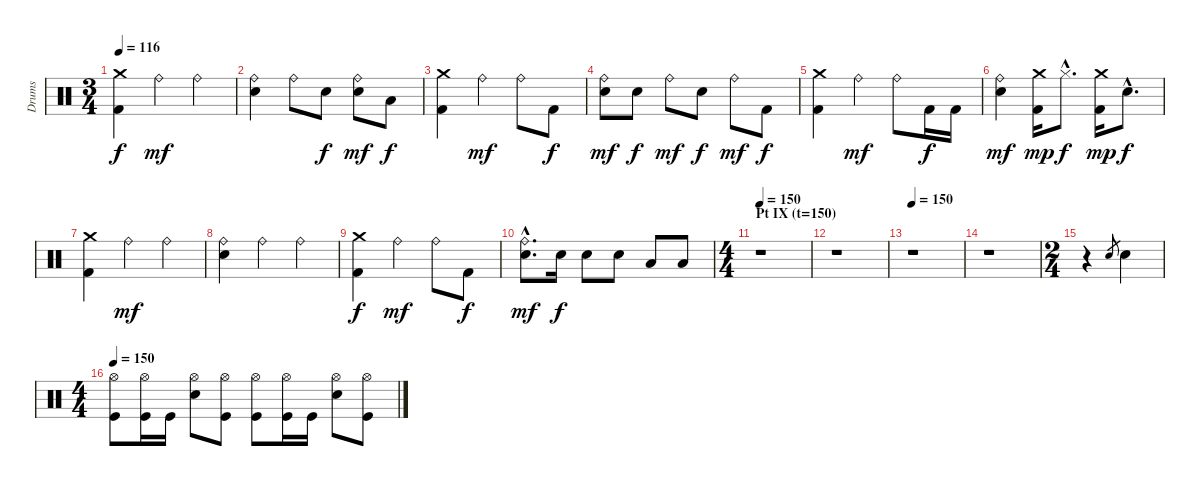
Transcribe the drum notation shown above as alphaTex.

\track ("Drums" "Drums") {instrument percussion}
\staff {score}
\articulation defaults
\ts (3 4)
\tempo 116
\clef neutral
\ks c
("Kick (hit) 2" "Crash medium (hit)").4{dy f} "Ride (bell)".4{dy mf} "Ride (bell)".4 |
("Electric Snare (hit)" "Ride (bell)").4 "Ride (bell)".8 "Electric Snare (hit)".8{dy f} ("Electric Snare (hit)" "Ride (bell)").8{dy mf} "Low Tom (hit)".8{dy f} |
("Kick (hit) 2" "Crash medium (hit)").4 "Ride (bell)".4{dy mf} "Ride (bell)".8 "Kick (hit) 2".8{dy f} |
("Electric Snare (hit)" "Ride (bell)").8{dy mf} "Electric Snare (hit)".8{dy f} "Ride (bell)".8{dy mf} "Electric Snare (hit)".8{dy f} "Ride (bell)".8{dy mf} "Kick (hit) 2".8{dy f} |
("Kick (hit) 2" "Crash medium (hit)").4 "Ride (bell)".4{dy mf} "Ride (bell)".8 "Kick (hit) 2".16{dy f} "Kick (hit) 2".16 |
("Electric Snare (hit)" "Ride (bell)").4{dy mf} ("Kick (hit) 2" "Crash medium (hit)").16{dy mp} "Hi-Hat (closed)"{hac x}.8{d dy f} ("Kick (hit) 2" "Crash medium (hit)").16{dy mp} "Snare (hit)"{hac x}.8{d dy f} |
("Kick (hit) 2" "Crash medium (hit)").4 "Ride (bell)".4{dy mf} "Ride (bell)".4 |
("Electric Snare (hit)" "Ride (bell)").4 "Ride (bell)".4 "Ride (bell)".4 |
("Kick (hit) 2" "Crash medium (hit)").4{dy f} "Ride (bell)".4{dy mf} "Ride (bell)".8 "Kick (hit) 2".8{dy f} |
("Electric Snare (hit)"{hac} "Ride (bell)"{hac}).8{d dy mf} "Electric Snare (hit)".16{dy f} "Electric Snare (hit)".8 "Electric Snare (hit)".8 "Low Tom (hit)".8 "Low Tom (hit)".8 |
\ts (4 4)
\section ("" "Pt IX (t=150)")
\tempo 150
r.1 |
r.1 |
\tempo 150
r.1 |
r.1 |
\ts (2 4)
r.4 "Electric Snare (hit)".8{gr} "Electric Snare (hit)".4 |
\ts (4 4)
\tempo 150
("Kick (hit)" "Hi-Hat (open)").8 ("Kick (hit)" "Hi-Hat (open)").16 "Kick (hit)".16 ("Electric Snare (hit)" "Hi-Hat (open)").8 ("Kick (hit)" "Hi-Hat (open)").8 ("Kick (hit)" "Hi-Hat (open)").8 ("Kick (hit)" "Hi-Hat (open)").16 "Kick (hit)".16 ("Electric Snare (hit)" "Hi-Hat (open)").8 ("Kick (hit)" "Hi-Hat (open)").8
